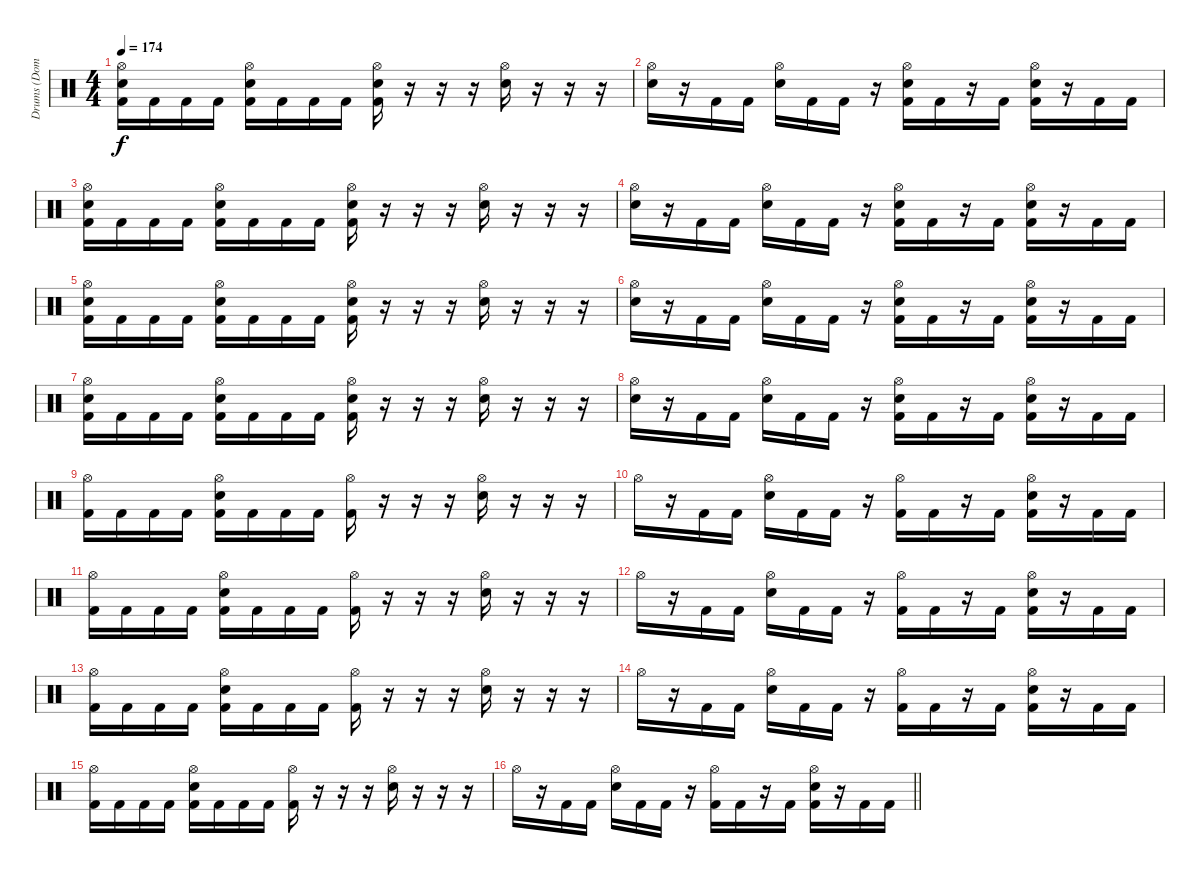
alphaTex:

\track ("Drums (Dominik)" "Drums (Dom") {instrument percussion}
\staff {score}
\articulation defaults
\ts (4 4)
\tempo 174
\clef neutral
\ks c
("Hi-Hat (open)" "Electric Snare (hit)" "Kick (hit) 2").16{dy f} "Kick (hit) 2".16 "Kick (hit) 2".16 "Kick (hit) 2".16 ("Hi-Hat (open)" "Electric Snare (hit)" "Kick (hit) 2").16 "Kick (hit) 2".16 "Kick (hit) 2".16 "Kick (hit) 2".16 ("Hi-Hat (open)" "Electric Snare (hit)" "Kick (hit) 2").16 r.16 r.16 r.16 ("Hi-Hat (open)" "Electric Snare (hit)").16 r.16 r.16 r.16 |
("Hi-Hat (open)" "Electric Snare (hit)").16 r.16 "Kick (hit) 2".16 "Kick (hit) 2".16 ("Hi-Hat (open)" "Electric Snare (hit)").16 "Kick (hit) 2".16 "Kick (hit) 2".16 r.16 ("Hi-Hat (open)" "Electric Snare (hit)" "Kick (hit) 2").16 "Kick (hit) 2".16 r.16 "Kick (hit) 2".16 ("Hi-Hat (open)" "Electric Snare (hit)" "Kick (hit) 2").16 r.16 "Kick (hit) 2".16 "Kick (hit) 2".16 |
("Hi-Hat (open)" "Electric Snare (hit)" "Kick (hit) 2").16 "Kick (hit) 2".16 "Kick (hit) 2".16 "Kick (hit) 2".16 ("Hi-Hat (open)" "Electric Snare (hit)" "Kick (hit) 2").16 "Kick (hit) 2".16 "Kick (hit) 2".16 "Kick (hit) 2".16 ("Hi-Hat (open)" "Electric Snare (hit)" "Kick (hit) 2").16 r.16 r.16 r.16 ("Hi-Hat (open)" "Electric Snare (hit)").16 r.16 r.16 r.16 |
("Hi-Hat (open)" "Electric Snare (hit)").16 r.16 "Kick (hit) 2".16 "Kick (hit) 2".16 ("Hi-Hat (open)" "Electric Snare (hit)").16 "Kick (hit) 2".16 "Kick (hit) 2".16 r.16 ("Hi-Hat (open)" "Electric Snare (hit)" "Kick (hit) 2").16 "Kick (hit) 2".16 r.16 "Kick (hit) 2".16 ("Hi-Hat (open)" "Electric Snare (hit)" "Kick (hit) 2").16 r.16 "Kick (hit) 2".16 "Kick (hit) 2".16 |
("Hi-Hat (open)" "Electric Snare (hit)" "Kick (hit) 2").16 "Kick (hit) 2".16 "Kick (hit) 2".16 "Kick (hit) 2".16 ("Hi-Hat (open)" "Electric Snare (hit)" "Kick (hit) 2").16 "Kick (hit) 2".16 "Kick (hit) 2".16 "Kick (hit) 2".16 ("Hi-Hat (open)" "Electric Snare (hit)" "Kick (hit) 2").16 r.16 r.16 r.16 ("Hi-Hat (open)" "Electric Snare (hit)").16 r.16 r.16 r.16 |
("Hi-Hat (open)" "Electric Snare (hit)").16 r.16 "Kick (hit) 2".16 "Kick (hit) 2".16 ("Hi-Hat (open)" "Electric Snare (hit)").16 "Kick (hit) 2".16 "Kick (hit) 2".16 r.16 ("Hi-Hat (open)" "Electric Snare (hit)" "Kick (hit) 2").16 "Kick (hit) 2".16 r.16 "Kick (hit) 2".16 ("Hi-Hat (open)" "Electric Snare (hit)" "Kick (hit) 2").16 r.16 "Kick (hit) 2".16 "Kick (hit) 2".16 |
("Hi-Hat (open)" "Electric Snare (hit)" "Kick (hit) 2").16 "Kick (hit) 2".16 "Kick (hit) 2".16 "Kick (hit) 2".16 ("Hi-Hat (open)" "Electric Snare (hit)" "Kick (hit) 2").16 "Kick (hit) 2".16 "Kick (hit) 2".16 "Kick (hit) 2".16 ("Hi-Hat (open)" "Electric Snare (hit)" "Kick (hit) 2").16 r.16 r.16 r.16 ("Hi-Hat (open)" "Electric Snare (hit)").16 r.16 r.16 r.16 |
("Hi-Hat (open)" "Electric Snare (hit)").16 r.16 "Kick (hit) 2".16 "Kick (hit) 2".16 ("Hi-Hat (open)" "Electric Snare (hit)").16 "Kick (hit) 2".16 "Kick (hit) 2".16 r.16 ("Hi-Hat (open)" "Electric Snare (hit)" "Kick (hit) 2").16 "Kick (hit) 2".16 r.16 "Kick (hit) 2".16 ("Hi-Hat (open)" "Electric Snare (hit)" "Kick (hit) 2").16 r.16 "Kick (hit) 2".16 "Kick (hit) 2".16 |
("Hi-Hat (open)" "Kick (hit) 2").16 "Kick (hit) 2".16 "Kick (hit) 2".16 "Kick (hit) 2".16 ("Hi-Hat (open)" "Electric Snare (hit)" "Kick (hit) 2").16 "Kick (hit) 2".16 "Kick (hit) 2".16 "Kick (hit) 2".16 ("Hi-Hat (open)" "Kick (hit) 2").16 r.16 r.16 r.16 ("Hi-Hat (open)" "Electric Snare (hit)").16 r.16 r.16 r.16 |
"Hi-Hat (open)".16 r.16 "Kick (hit) 2".16 "Kick (hit) 2".16 ("Hi-Hat (open)" "Electric Snare (hit)").16 "Kick (hit) 2".16 "Kick (hit) 2".16 r.16 ("Hi-Hat (open)" "Kick (hit) 2").16 "Kick (hit) 2".16 r.16 "Kick (hit) 2".16 ("Hi-Hat (open)" "Electric Snare (hit)" "Kick (hit) 2").16 r.16 "Kick (hit) 2".16 "Kick (hit) 2".16 |
("Hi-Hat (open)" "Kick (hit) 2").16 "Kick (hit) 2".16 "Kick (hit) 2".16 "Kick (hit) 2".16 ("Hi-Hat (open)" "Electric Snare (hit)" "Kick (hit) 2").16 "Kick (hit) 2".16 "Kick (hit) 2".16 "Kick (hit) 2".16 ("Hi-Hat (open)" "Kick (hit) 2").16 r.16 r.16 r.16 ("Hi-Hat (open)" "Electric Snare (hit)").16 r.16 r.16 r.16 |
"Hi-Hat (open)".16 r.16 "Kick (hit) 2".16 "Kick (hit) 2".16 ("Hi-Hat (open)" "Electric Snare (hit)").16 "Kick (hit) 2".16 "Kick (hit) 2".16 r.16 ("Hi-Hat (open)" "Kick (hit) 2").16 "Kick (hit) 2".16 r.16 "Kick (hit) 2".16 ("Hi-Hat (open)" "Electric Snare (hit)" "Kick (hit) 2").16 r.16 "Kick (hit) 2".16 "Kick (hit) 2".16 |
("Hi-Hat (open)" "Kick (hit) 2").16 "Kick (hit) 2".16 "Kick (hit) 2".16 "Kick (hit) 2".16 ("Hi-Hat (open)" "Electric Snare (hit)" "Kick (hit) 2").16 "Kick (hit) 2".16 "Kick (hit) 2".16 "Kick (hit) 2".16 ("Hi-Hat (open)" "Kick (hit) 2").16 r.16 r.16 r.16 ("Hi-Hat (open)" "Electric Snare (hit)").16 r.16 r.16 r.16 |
"Hi-Hat (open)".16 r.16 "Kick (hit) 2".16 "Kick (hit) 2".16 ("Hi-Hat (open)" "Electric Snare (hit)").16 "Kick (hit) 2".16 "Kick (hit) 2".16 r.16 ("Hi-Hat (open)" "Kick (hit) 2").16 "Kick (hit) 2".16 r.16 "Kick (hit) 2".16 ("Hi-Hat (open)" "Electric Snare (hit)" "Kick (hit) 2").16 r.16 "Kick (hit) 2".16 "Kick (hit) 2".16 |
("Hi-Hat (open)" "Kick (hit) 2").16 "Kick (hit) 2".16 "Kick (hit) 2".16 "Kick (hit) 2".16 ("Hi-Hat (open)" "Electric Snare (hit)" "Kick (hit) 2").16 "Kick (hit) 2".16 "Kick (hit) 2".16 "Kick (hit) 2".16 ("Hi-Hat (open)" "Kick (hit) 2").16 r.16 r.16 r.16 ("Hi-Hat (open)" "Electric Snare (hit)").16 r.16 r.16 r.16 |
\barLineRight lightlight "Hi-Hat (open)".16
r.16 "Kick (hit) 2".16 "Kick (hit) 2".16 ("Hi-Hat (open)" "Electric Snare (hit)").16 "Kick (hit) 2".16 "Kick (hit) 2".16 r.16 ("Hi-Hat (open)" "Kick (hit) 2").16 "Kick (hit) 2".16 r.16 "Kick (hit) 2".16 ("Hi-Hat (open)" "Electric Snare (hit)" "Kick (hit) 2").16 r.16 "Kick (hit) 2".16 "Kick (hit) 2".16
